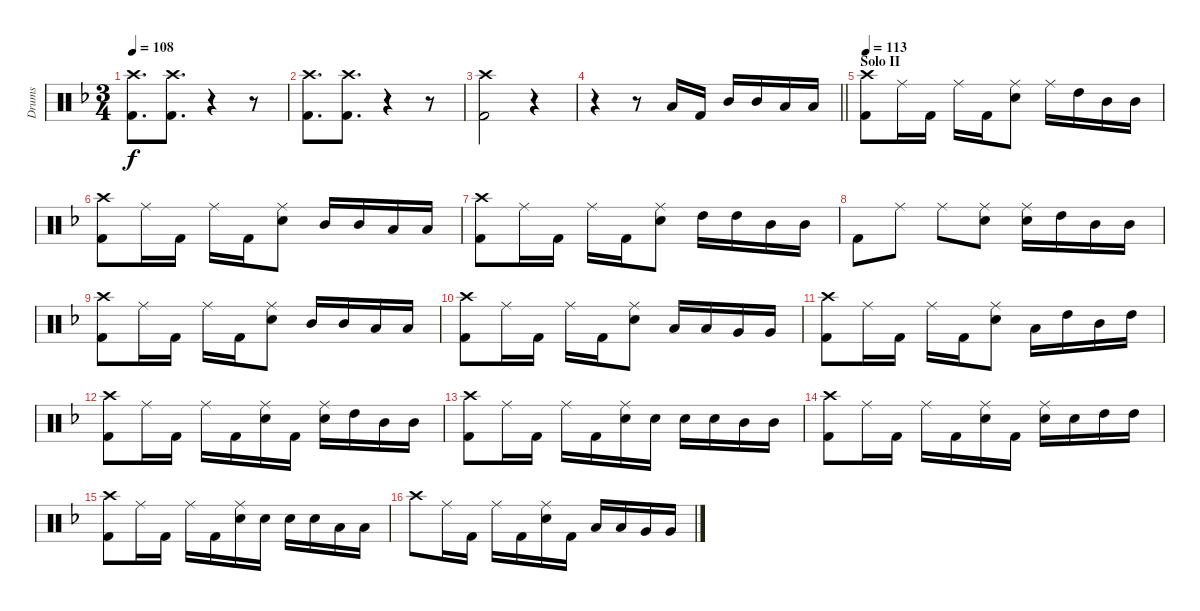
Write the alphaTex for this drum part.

\track ("Drums" "Drums") {instrument percussion}
\staff {score}
\articulation defaults
\ts (3 4)
\tempo 108
\clef neutral
\ks dminor
("Crash high (hit)" "Kick (hit) 2").8{d dy f} ("Crash high (hit)" "Kick (hit) 2").8{d} r.4 r.8 |
("Crash high (hit)" "Kick (hit) 2").8{d} ("Crash high (hit)" "Kick (hit) 2").8{d} r.4 r.8 |
("Crash high (hit)" "Kick (hit) 2").2 r.4 |
\barLineRight lightlight
r.4 r.8 "Low Tom (hit)".16 "Kick (hit) 2".16 "Mid Tom (hit)".16 "Mid Tom (hit)".16 "Low Tom (hit)".16 "Low Tom (hit)".16 |
\section ("" "Solo II")
\tempo 113
("Crash high (hit)" "Kick (hit) 2").8 "Ride (middle)".16 "Kick (hit) 2".16 "Ride (middle)".16 "Kick (hit) 2".16 ("Ride (middle)" "Snare (hit) 2").8 "Ride (middle)".16 "High Tom (hit)".16 "Mid Tom (hit)".16 "Mid Tom (hit)".16 |
("Crash high (hit)" "Kick (hit) 2").8 "Ride (middle)".16 "Kick (hit) 2".16 "Ride (middle)".16 "Kick (hit) 2".16 ("Ride (middle)" "Snare (hit) 2").8 "Mid Tom (hit)".16 "Mid Tom (hit)".16 "Low Tom (hit)".16 "Low Tom (hit)".16 |
("Crash high (hit)" "Kick (hit) 2").8 "Ride (middle)".16 "Kick (hit) 2".16 "Ride (middle)".16 "Kick (hit) 2".16 ("Ride (middle)" "Snare (hit) 2").8 "High Tom (hit)".16 "High Tom (hit)".16 "Mid Tom (hit)".16 "Mid Tom (hit)".16 |
"Kick (hit) 2".8 "Ride (middle)".8 "Ride (middle)".8 ("Ride (middle)" "Snare (hit) 2").8 ("Ride (middle)" "Snare (hit) 2").16 "High Tom (hit)".16 "Mid Tom (hit)".16 "Mid Tom (hit)".16 |
("Crash high (hit)" "Kick (hit) 2").8 "Ride (middle)".16 "Kick (hit) 2".16 "Ride (middle)".16 "Kick (hit) 2".16 ("Ride (middle)" "Snare (hit) 2").8 "Mid Tom (hit)".16 "Mid Tom (hit)".16 "Low Tom (hit)".16 "Low Tom (hit)".16 |
("Crash high (hit)" "Kick (hit) 2").8 "Ride (middle)".16 "Kick (hit) 2".16 "Ride (middle)".16 "Kick (hit) 2".16 ("Ride (middle)" "Snare (hit) 2").8 "Low Tom (hit)".16 "Low Tom (hit)".16 "Very Low Tom (hit)".16 "Very Low Tom (hit)".16 |
("Crash high (hit)" "Kick (hit) 2").8 "Ride (middle)".16 "Kick (hit) 2".16 "Ride (middle)".16 "Kick (hit) 2".16 ("Ride (middle)" "Snare (hit) 2").8 "Low Tom (hit)".16 "High Tom (hit)".16 "Mid Tom (hit)".16 "High Tom (hit)".16 |
("Crash high (hit)" "Kick (hit) 2").8 "Ride (middle)".16 "Kick (hit) 2".16 "Ride (middle)".16 "Kick (hit) 2".16 ("Ride (middle)" "Snare (hit) 2").16 "Kick (hit) 2".16 ("Ride (middle)" "Snare (hit) 2").16 "High Tom (hit)".16 "Mid Tom (hit)".16 "Mid Tom (hit)".16 |
("Crash high (hit)" "Kick (hit) 2").8 "Ride (middle)".16 "Kick (hit) 2".16 "Ride (middle)".16 "Kick (hit) 2".16 ("Ride (middle)" "Snare (hit) 2").16 "Snare (hit) 2".16 "Snare (hit) 2".16 "Snare (hit) 2".16 "Mid Tom (hit)".16 "Mid Tom (hit)".16 |
("Crash high (hit)" "Kick (hit) 2").8 "Ride (middle)".16 "Kick (hit) 2".16 "Ride (middle)".16 "Kick (hit) 2".16 ("Ride (middle)" "Snare (hit) 2").16 "Kick (hit) 2".16 ("Ride (middle)" "Snare (hit) 2").16 "Snare (hit) 2".16 "High Tom (hit)".16 "High Tom (hit)".16 |
("Crash high (hit)" "Kick (hit) 2").8 "Ride (middle)".16 "Kick (hit) 2".16 "Ride (middle)".16 "Kick (hit) 2".16 ("Ride (middle)" "Snare (hit) 2").16 "Snare (hit) 2".16 "Snare (hit) 2".16 "Snare (hit) 2".16 "Low Tom (hit)".16 "Low Tom (hit)".16 |
"Crash high (hit)".8 "Ride (middle)".16 "Kick (hit) 2".16 "Ride (middle)".16 "Kick (hit) 2".16 ("Ride (middle)" "Snare (hit) 2").16 "Kick (hit) 2".16 "Low Tom (hit)".16 "Low Tom (hit)".16 "Very Low Tom (hit)".16 "Very Low Tom (hit)".16
